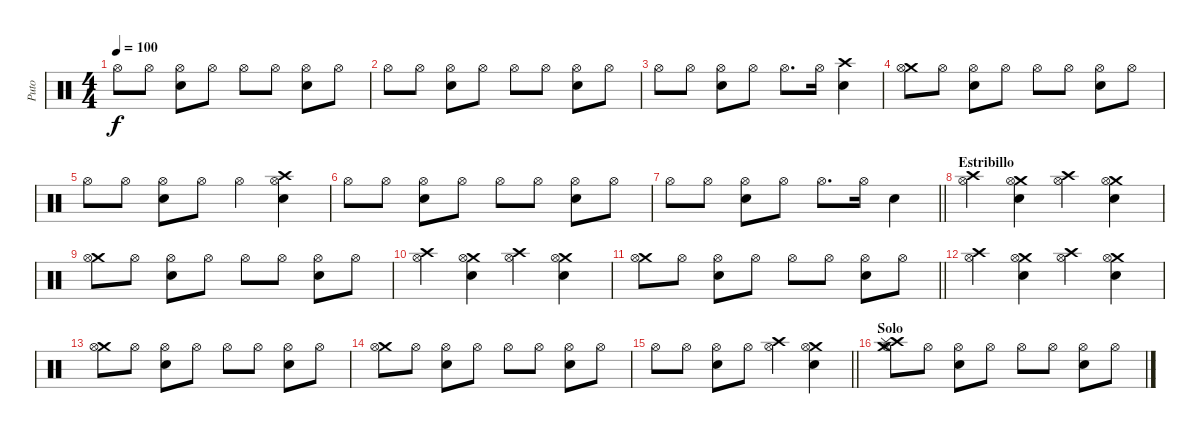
\track ("Puto" "Puto") {instrument percussion}
\staff {score}
\articulation defaults
\ts (4 4)
\tempo 100
\clef neutral
\ks c "Hi-Hat (open)".8{dy f} "Hi-Hat (open)".8
("Snare (hit) 2" "Hi-Hat (open)").8 "Hi-Hat (open)".8 "Hi-Hat (open)".8 "Hi-Hat (open)".8 ("Snare (hit) 2" "Hi-Hat (open)").8 "Hi-Hat (open)".8 |
"Hi-Hat (open)".8 "Hi-Hat (open)".8 ("Snare (hit) 2" "Hi-Hat (open)").8 "Hi-Hat (open)".8 "Hi-Hat (open)".8 "Hi-Hat (open)".8 ("Snare (hit) 2" "Hi-Hat (open)").8 "Hi-Hat (open)".8 |
"Hi-Hat (open)".8 "Hi-Hat (open)".8 ("Snare (hit) 2" "Hi-Hat (open)").8 "Hi-Hat (open)".8 "Hi-Hat (open)".8{d} "Hi-Hat (open)".16 ("Crash high (hit)" "Snare (hit) 2").4 |
("Crash medium (hit)" "Hi-Hat (open)").8 "Hi-Hat (open)".8 ("Snare (hit) 2" "Hi-Hat (open)").8 "Hi-Hat (open)".8 "Hi-Hat (open)".8 "Hi-Hat (open)".8 ("Snare (hit) 2" "Hi-Hat (open)").8 "Hi-Hat (open)".8 |
"Hi-Hat (open)".8 "Hi-Hat (open)".8 ("Snare (hit) 2" "Hi-Hat (open)").8 "Hi-Hat (open)".8 "Hi-Hat (open)".4 ("Crash high (hit)" "Snare (hit) 2" "Hi-Hat (open)").4 |
"Hi-Hat (open)".8 "Hi-Hat (open)".8 ("Snare (hit) 2" "Hi-Hat (open)").8 "Hi-Hat (open)".8 "Hi-Hat (open)".8 "Hi-Hat (open)".8 ("Snare (hit) 2" "Hi-Hat (open)").8 "Hi-Hat (open)".8 |
\barLineRight lightlight "Hi-Hat (open)".8 "Hi-Hat (open)".8
("Snare (hit) 2" "Hi-Hat (open)").8 "Hi-Hat (open)".8 "Hi-Hat (open)".8{d} "Hi-Hat (open)".16 "Snare (hit) 2".4 |
\section ("" "Estribillo")
("Crash high (hit)" "Hi-Hat (open)").4 ("Crash medium (hit)" "Snare (hit) 2" "Hi-Hat (open)").4 ("Crash high (hit)" "Hi-Hat (open)").4 ("Crash medium (hit)" "Snare (hit) 2" "Hi-Hat (open)").4 |
("Crash medium (hit)" "Hi-Hat (open)").8 "Hi-Hat (open)".8 ("Snare (hit) 2" "Hi-Hat (open)").8 "Hi-Hat (open)".8 "Hi-Hat (open)".8 "Hi-Hat (open)".8 ("Snare (hit) 2" "Hi-Hat (open)").8 "Hi-Hat (open)".8 |
("Crash high (hit)" "Hi-Hat (open)").4 ("Crash medium (hit)" "Snare (hit) 2" "Hi-Hat (open)").4 ("Crash high (hit)" "Hi-Hat (open)").4 ("Crash medium (hit)" "Snare (hit) 2" "Hi-Hat (open)").4 |
\barLineRight lightlight
("Crash medium (hit)" "Hi-Hat (open)").8 "Hi-Hat (open)".8 ("Snare (hit) 2" "Hi-Hat (open)").8 "Hi-Hat (open)".8 "Hi-Hat (open)".8 "Hi-Hat (open)".8 ("Snare (hit) 2" "Hi-Hat (open)").8 "Hi-Hat (open)".8 |
("Crash high (hit)" "Hi-Hat (open)").4 ("Crash medium (hit)" "Snare (hit) 2" "Hi-Hat (open)").4 ("Crash high (hit)" "Hi-Hat (open)").4 ("Crash medium (hit)" "Snare (hit) 2" "Hi-Hat (open)").4 |
("Crash medium (hit)" "Hi-Hat (open)").8 "Hi-Hat (open)".8 ("Snare (hit) 2" "Hi-Hat (open)").8 "Hi-Hat (open)".8 "Hi-Hat (open)".8 "Hi-Hat (open)".8 ("Snare (hit) 2" "Hi-Hat (open)").8 "Hi-Hat (open)".8 |
("Crash medium (hit)" "Hi-Hat (open)").8 "Hi-Hat (open)".8 ("Snare (hit) 2" "Hi-Hat (open)").8 "Hi-Hat (open)".8 "Hi-Hat (open)".8 "Hi-Hat (open)".8 ("Snare (hit) 2" "Hi-Hat (open)").8 "Hi-Hat (open)".8 |
\barLineRight lightlight "Hi-Hat (open)".8 "Hi-Hat (open)".8
("Snare (hit) 2" "Hi-Hat (open)").8 "Hi-Hat (open)".8 ("Crash high (hit)" "Hi-Hat (open)").4 ("Crash medium (hit)" "Snare (hit) 2" "Hi-Hat (open)").4 |
\section ("" "Solo")
("Crash medium (hit)" "Crash high (hit)" "Splash (hit)" "Hi-Hat (open)").8 "Hi-Hat (open)".8 ("Snare (hit) 2" "Hi-Hat (open)").8 "Hi-Hat (open)".8 "Hi-Hat (open)".8 "Hi-Hat (open)".8 ("Snare (hit) 2" "Hi-Hat (open)").8 "Hi-Hat (open)".8
